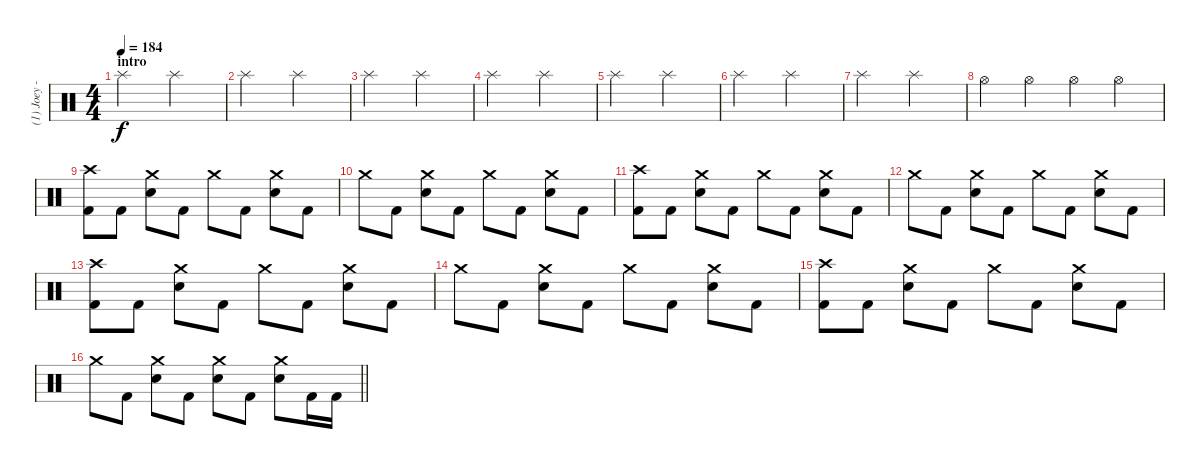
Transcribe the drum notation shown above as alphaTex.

\track ("(1) Joey - drums" "(1) Joey -") {instrument percussion}
\staff {score}
\articulation defaults
\ts (4 4)
\section ("" "intro")
\tempo 184
\clef neutral
\ks c "Splash (hit)".2{dy f} "Splash (hit)".2
|
"Splash (hit)".2 "Splash (hit)".2 |
"Splash (hit)".2 "Splash (hit)".2 |
"Splash (hit)".2 "Splash (hit)".2 |
"Splash (hit)".2 "Splash (hit)".2 |
"Splash (hit)".2 "Splash (hit)".2 |
"Splash (hit)".2 "Splash (hit)".2 |
"Hi-Hat (open)".4 "Hi-Hat (open)".4 "Hi-Hat (open)".4 "Hi-Hat (open)".4 |
("Crash high (hit)" "Kick (hit) 2").8 "Kick (hit) 2".8 ("Crash medium (hit)" "Electric Snare (hit)").8 "Kick (hit) 2".8 "Crash medium (hit)".8 "Kick (hit) 2".8 ("Crash medium (hit)" "Electric Snare (hit)").8 "Kick (hit) 2".8 |
"Crash medium (hit)".8 "Kick (hit) 2".8 ("Crash medium (hit)" "Electric Snare (hit)").8 "Kick (hit) 2".8 "Crash medium (hit)".8 "Kick (hit) 2".8 ("Crash medium (hit)" "Electric Snare (hit)").8 "Kick (hit) 2".8 |
("Crash high (hit)" "Kick (hit) 2").8 "Kick (hit) 2".8 ("Crash medium (hit)" "Electric Snare (hit)").8 "Kick (hit) 2".8 "Crash medium (hit)".8 "Kick (hit) 2".8 ("Crash medium (hit)" "Electric Snare (hit)").8 "Kick (hit) 2".8 |
"Crash medium (hit)".8 "Kick (hit) 2".8 ("Crash medium (hit)" "Electric Snare (hit)").8 "Kick (hit) 2".8 "Crash medium (hit)".8 "Kick (hit) 2".8 ("Crash medium (hit)" "Electric Snare (hit)").8 "Kick (hit) 2".8 |
("Crash high (hit)" "Kick (hit) 2").8 "Kick (hit) 2".8 ("Crash medium (hit)" "Electric Snare (hit)").8 "Kick (hit) 2".8 "Crash medium (hit)".8 "Kick (hit) 2".8 ("Crash medium (hit)" "Electric Snare (hit)").8 "Kick (hit) 2".8 |
"Crash medium (hit)".8 "Kick (hit) 2".8 ("Crash medium (hit)" "Electric Snare (hit)").8 "Kick (hit) 2".8 "Crash medium (hit)".8 "Kick (hit) 2".8 ("Crash medium (hit)" "Electric Snare (hit)").8 "Kick (hit) 2".8 |
("Crash high (hit)" "Kick (hit) 2").8 "Kick (hit) 2".8 ("Crash medium (hit)" "Electric Snare (hit)").8 "Kick (hit) 2".8 "Crash medium (hit)".8 "Kick (hit) 2".8 ("Crash medium (hit)" "Electric Snare (hit)").8 "Kick (hit) 2".8 |
\barLineRight lightlight "Crash medium (hit)".8 "Kick (hit) 2".8
("Crash medium (hit)" "Electric Snare (hit)").8 "Kick (hit) 2".8 ("Crash medium (hit)" "Electric Snare (hit)").8 "Kick (hit) 2".8 ("Crash medium (hit)" "Electric Snare (hit)").8 "Kick (hit) 2".16 "Kick (hit) 2".16
